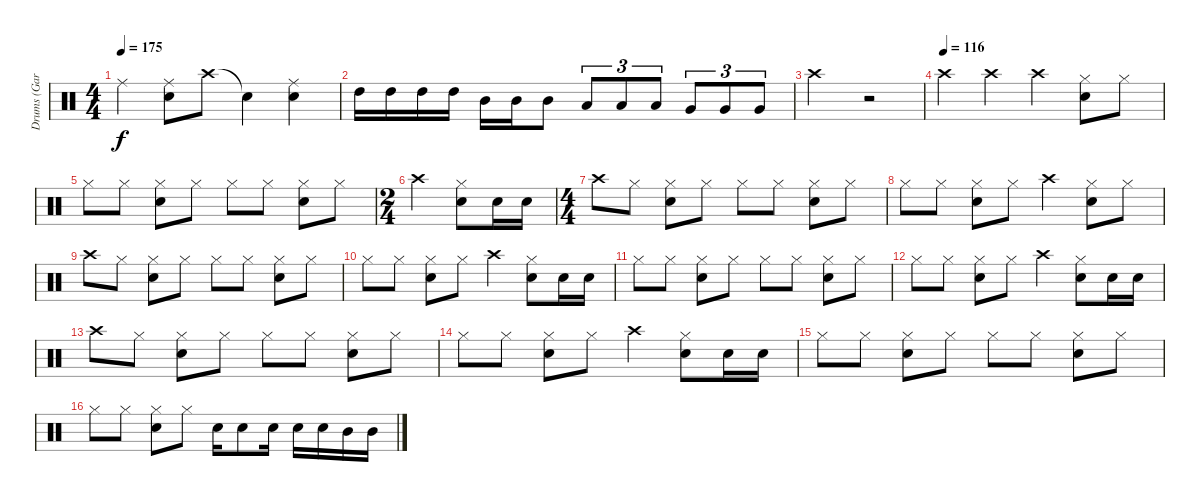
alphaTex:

\track ("Drums (Gar Samuelson)" "Drums (Gar") {instrument percussion}
\staff {score}
\articulation defaults
\ts (4 4)
\tempo 175
\clef neutral
\ks c "Ride (middle)".4{dy f}
("Ride (middle)" "Snare (hit) 2").8 "Crash high (hit)".8 "Snare (hit)"{t}.4 ("Ride (middle)" "Snare (hit) 2").4 |
"High Tom (hit)".16 "High Tom (hit)".16 "High Tom (hit)".16 "High Tom (hit)".16 "Mid Tom (hit)".16 "Mid Tom (hit)".16 "Mid Tom (hit)".8 "Low Tom (hit)".8{tu (3 2)} "Low Tom (hit)".8{tu (3 2)} "Low Tom (hit)".8{tu (3 2)} "Very Low Tom (hit)".8{tu (3 2)} "Very Low Tom (hit)".8{tu (3 2)} "Very Low Tom (hit)".8{tu (3 2)} |
"Crash high (hit)".2 r.2 |
\tempo (116)
"Crash high (hit)".4 "Crash high (hit)".4 "Crash high (hit)".4 ("Hi-Hat (closed)" "Snare (hit) 2").8 "Hi-Hat (closed)".8 |
"Hi-Hat (closed)".8 "Hi-Hat (closed)".8 ("Hi-Hat (closed)" "Snare (hit) 2").8 "Hi-Hat (closed)".8 "Hi-Hat (closed)".8 "Hi-Hat (closed)".8 ("Hi-Hat (closed)" "Snare (hit) 2").8 "Hi-Hat (closed)".8 |
\ts (2 4)
"Crash high (hit)".4 ("Hi-Hat (closed)" "Snare (hit) 2").8 "Snare (hit) 2".16 "Snare (hit) 2".16 |
\ts (4 4)
"Crash high (hit)".8 "Hi-Hat (closed)".8 ("Hi-Hat (closed)" "Snare (hit) 2").8 "Hi-Hat (closed)".8 "Hi-Hat (closed)".8 "Hi-Hat (closed)".8 ("Hi-Hat (closed)" "Snare (hit) 2").8 "Hi-Hat (closed)".8 |
"Hi-Hat (closed)".8 "Hi-Hat (closed)".8 ("Hi-Hat (closed)" "Snare (hit) 2").8 "Hi-Hat (closed)".8 "Crash high (hit)".4 ("Hi-Hat (closed)" "Snare (hit) 2").8 "Hi-Hat (closed)".8 |
"Crash high (hit)".8 "Hi-Hat (closed)".8 ("Hi-Hat (closed)" "Snare (hit) 2").8 "Hi-Hat (closed)".8 "Hi-Hat (closed)".8 "Hi-Hat (closed)".8 ("Hi-Hat (closed)" "Snare (hit) 2").8 "Hi-Hat (closed)".8 |
"Hi-Hat (closed)".8 "Hi-Hat (closed)".8 ("Hi-Hat (closed)" "Snare (hit) 2").8 "Hi-Hat (closed)".8 "Crash high (hit)".4 ("Hi-Hat (closed)" "Snare (hit) 2").8 "Snare (hit) 2".16 "Snare (hit) 2".16 |
"Hi-Hat (closed)".8 "Hi-Hat (closed)".8 ("Hi-Hat (closed)" "Snare (hit) 2").8 "Hi-Hat (closed)".8 "Hi-Hat (closed)".8 "Hi-Hat (closed)".8 ("Hi-Hat (closed)" "Snare (hit) 2").8 "Hi-Hat (closed)".8 |
"Hi-Hat (closed)".8 "Hi-Hat (closed)".8 ("Hi-Hat (closed)" "Snare (hit) 2").8 "Hi-Hat (closed)".8 "Crash high (hit)".4 ("Hi-Hat (closed)" "Snare (hit) 2").8 "Snare (hit) 2".16 "Snare (hit) 2".16 |
"Crash high (hit)".8 "Hi-Hat (closed)".8 ("Hi-Hat (closed)" "Snare (hit) 2").8 "Hi-Hat (closed)".8 "Hi-Hat (closed)".8 "Hi-Hat (closed)".8 ("Hi-Hat (closed)" "Snare (hit) 2").8 "Hi-Hat (closed)".8 |
"Hi-Hat (closed)".8 "Hi-Hat (closed)".8 ("Hi-Hat (closed)" "Snare (hit) 2").8 "Hi-Hat (closed)".8 "Crash high (hit)".4 ("Hi-Hat (closed)" "Snare (hit) 2").8 "Snare (hit) 2".16 "Snare (hit) 2".16 |
"Hi-Hat (closed)".8 "Hi-Hat (closed)".8 ("Hi-Hat (closed)" "Snare (hit) 2").8 "Hi-Hat (closed)".8 "Hi-Hat (closed)".8 "Hi-Hat (closed)".8 ("Hi-Hat (closed)" "Snare (hit) 2").8 "Hi-Hat (closed)".8 |
"Hi-Hat (closed)".8 "Hi-Hat (closed)".8 ("Hi-Hat (closed)" "Snare (hit) 2").8 "Hi-Hat (closed)".8 "Snare (hit) 2".16 "Snare (hit) 2".8 "Snare (hit) 2".16 "Snare (hit) 2".16 "Snare (hit) 2".16 "Mid Tom (hit)".16 "Mid Tom (hit)".16
